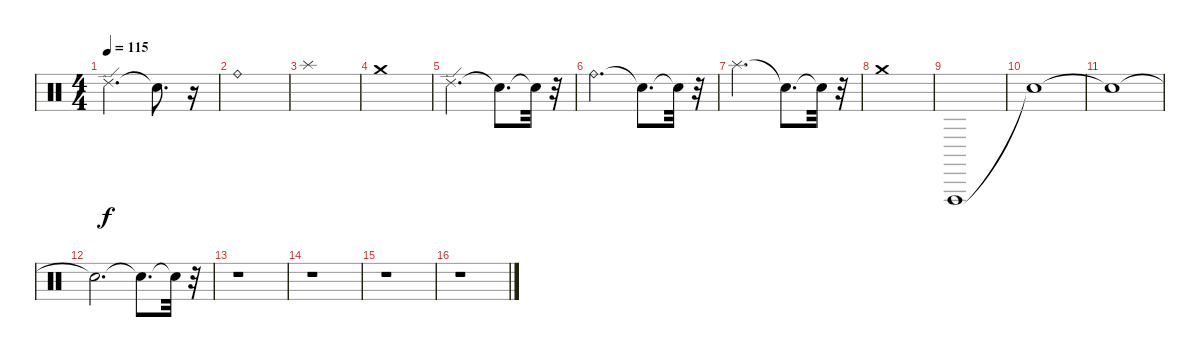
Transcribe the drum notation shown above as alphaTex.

\track "" {instrument percussion}
\staff {score}
\articulation defaults
\ts (4 4)
\tempo 115
\clef neutral
\ks c "Ride (edge) 2".2{d dy f} "Snare (hit)"{t}.8{d}
r.16 |
"Ride (bell)".1 |
"Splash (hit)".1 |
"Crash medium (hit)".1 |
"Ride (edge) 2".2{d} "Snare (hit)"{t}.8{d} "Snare (hit)"{t}.32 r.32 |
"Ride (bell)".2{d} "Snare (hit)"{t}.8{d} "Snare (hit)"{t}.32 r.32 |
"Splash (hit)".2{d} "Snare (hit)"{t}.8{d} "Snare (hit)"{t}.32 r.32 |
"Crash medium (hit)".1 |
"Vibraslap (hit)".1 |
"Snare (hit)"{t}.1 |
"Snare (hit)"{t}.1 |
"Snare (hit)"{t}.2{d} "Snare (hit)"{t}.8{d} "Snare (hit)"{t}.32 r.32 |
r.1 |
r.1 |
r.1 |
r.1
